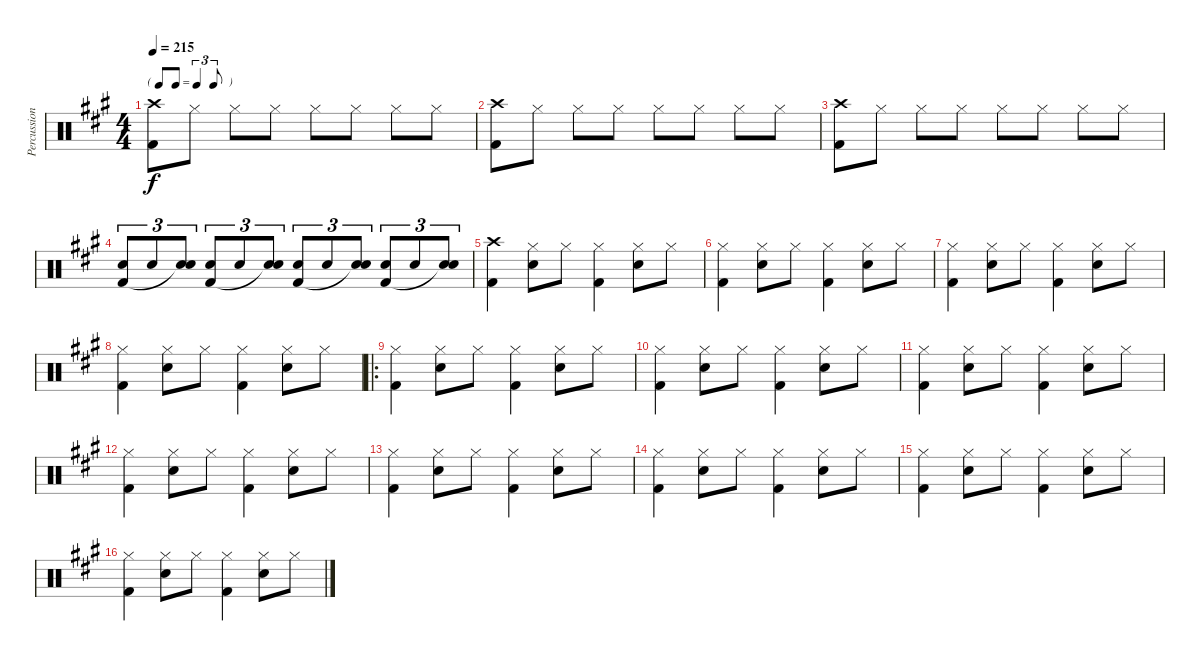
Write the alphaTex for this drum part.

\track ("Percussion" "Percussion") {instrument percussion}
\staff {score}
\articulation defaults
\ts (4 4)
\tf triplet8th
\tempo 215
\clef neutral
\ks a
("Crash high (hit)" "Kick (hit) 2").8{dy f} "Hi-Hat (closed)".8 "Hi-Hat (closed)".8 "Hi-Hat (closed)".8 "Hi-Hat (closed)".8 "Hi-Hat (closed)".8 "Hi-Hat (closed)".8 "Hi-Hat (closed)".8 |
("Crash high (hit)" "Kick (hit) 2").8 "Hi-Hat (closed)".8 "Hi-Hat (closed)".8 "Hi-Hat (closed)".8 "Hi-Hat (closed)".8 "Hi-Hat (closed)".8 "Hi-Hat (closed)".8 "Hi-Hat (closed)".8 |
("Crash high (hit)" "Kick (hit) 2").8 "Hi-Hat (closed)".8 "Hi-Hat (closed)".8 "Hi-Hat (closed)".8 "Hi-Hat (closed)".8 "Hi-Hat (closed)".8 "Hi-Hat (closed)".8 "Hi-Hat (closed)".8 |
("Snare (hit) 2" "Kick (hit) 2").8{tu (3 2)} "Snare (hit) 2".8{tu (3 2)} ("Snare (hit) 2" "Snare (hit)"{t}).8{tu (3 2)} ("Snare (hit) 2" "Kick (hit) 2").8{tu (3 2)} "Snare (hit) 2".8{tu (3 2)} ("Snare (hit) 2" "Snare (hit)"{t}).8{tu (3 2)} ("Snare (hit) 2" "Kick (hit) 2").8{tu (3 2)} "Snare (hit) 2".8{tu (3 2)} ("Snare (hit) 2" "Snare (hit)"{t}).8{tu (3 2)} ("Snare (hit) 2" "Kick (hit) 2").8{tu (3 2)} "Snare (hit) 2".8{tu (3 2)} ("Snare (hit) 2" "Snare (hit)"{t}).8{tu (3 2)} |
("Crash high (hit)" "Kick (hit) 2").4 ("Hi-Hat (closed)" "Snare (hit) 2").8 "Hi-Hat (closed)".8 ("Hi-Hat (closed)" "Kick (hit) 2").4 ("Hi-Hat (closed)" "Snare (hit) 2").8 "Hi-Hat (closed)".8 |
("Hi-Hat (closed)" "Kick (hit) 2").4 ("Hi-Hat (closed)" "Snare (hit) 2").8 "Hi-Hat (closed)".8 ("Hi-Hat (closed)" "Kick (hit) 2").4 ("Hi-Hat (closed)" "Snare (hit) 2").8 "Hi-Hat (closed)".8 |
("Hi-Hat (closed)" "Kick (hit) 2").4 ("Hi-Hat (closed)" "Snare (hit) 2").8 "Hi-Hat (closed)".8 ("Hi-Hat (closed)" "Kick (hit) 2").4 ("Hi-Hat (closed)" "Snare (hit) 2").8 "Hi-Hat (closed)".8 |
("Hi-Hat (closed)" "Kick (hit) 2").4 ("Hi-Hat (closed)" "Snare (hit) 2").8 "Hi-Hat (closed)".8 ("Hi-Hat (closed)" "Kick (hit) 2").4 ("Hi-Hat (closed)" "Snare (hit) 2").8 "Hi-Hat (closed)".8 |
\ro
("Hi-Hat (closed)" "Kick (hit) 2").4 ("Hi-Hat (closed)" "Snare (hit) 2").8 "Hi-Hat (closed)".8 ("Hi-Hat (closed)" "Kick (hit) 2").4 ("Hi-Hat (closed)" "Snare (hit) 2").8 "Hi-Hat (closed)".8 |
("Hi-Hat (closed)" "Kick (hit) 2").4 ("Hi-Hat (closed)" "Snare (hit) 2").8 "Hi-Hat (closed)".8 ("Hi-Hat (closed)" "Kick (hit) 2").4 ("Hi-Hat (closed)" "Snare (hit) 2").8 "Hi-Hat (closed)".8 |
("Hi-Hat (closed)" "Kick (hit) 2").4 ("Hi-Hat (closed)" "Snare (hit) 2").8 "Hi-Hat (closed)".8 ("Hi-Hat (closed)" "Kick (hit) 2").4 ("Hi-Hat (closed)" "Snare (hit) 2").8 "Hi-Hat (closed)".8 |
("Hi-Hat (closed)" "Kick (hit) 2").4 ("Hi-Hat (closed)" "Snare (hit) 2").8 "Hi-Hat (closed)".8 ("Hi-Hat (closed)" "Kick (hit) 2").4 ("Hi-Hat (closed)" "Snare (hit) 2").8 "Hi-Hat (closed)".8 |
("Hi-Hat (closed)" "Kick (hit) 2").4 ("Hi-Hat (closed)" "Snare (hit) 2").8 "Hi-Hat (closed)".8 ("Hi-Hat (closed)" "Kick (hit) 2").4 ("Hi-Hat (closed)" "Snare (hit) 2").8 "Hi-Hat (closed)".8 |
("Hi-Hat (closed)" "Kick (hit) 2").4 ("Hi-Hat (closed)" "Snare (hit) 2").8 "Hi-Hat (closed)".8 ("Hi-Hat (closed)" "Kick (hit) 2").4 ("Hi-Hat (closed)" "Snare (hit) 2").8 "Hi-Hat (closed)".8 |
("Hi-Hat (closed)" "Kick (hit) 2").4 ("Hi-Hat (closed)" "Snare (hit) 2").8 "Hi-Hat (closed)".8 ("Hi-Hat (closed)" "Kick (hit) 2").4 ("Hi-Hat (closed)" "Snare (hit) 2").8 "Hi-Hat (closed)".8 |
("Hi-Hat (closed)" "Kick (hit) 2").4 ("Hi-Hat (closed)" "Snare (hit) 2").8 "Hi-Hat (closed)".8 ("Hi-Hat (closed)" "Kick (hit) 2").4 ("Hi-Hat (closed)" "Snare (hit) 2").8 "Hi-Hat (closed)".8
